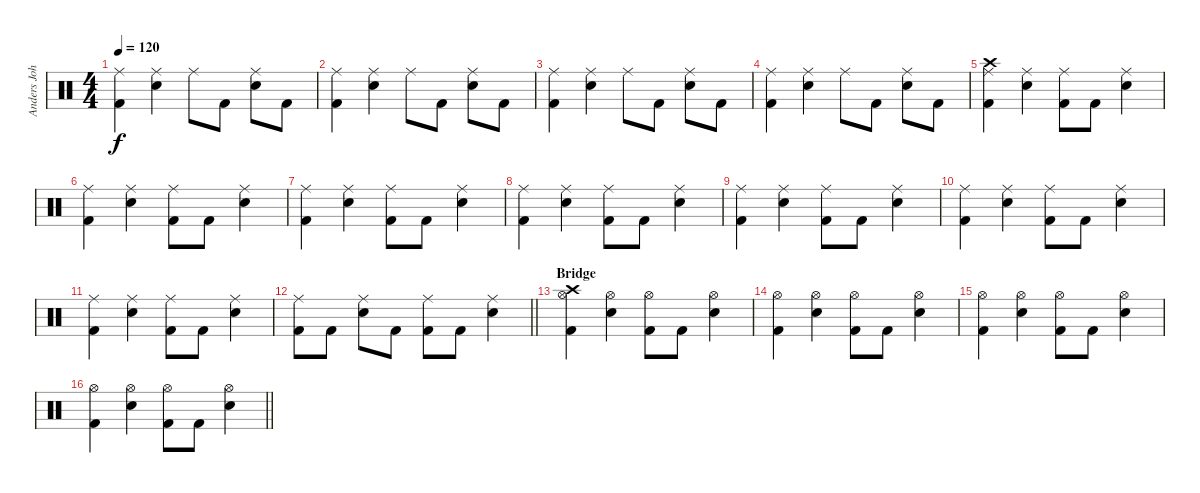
\track ("Anders Johansson" "Anders Joh") {instrument percussion}
\staff {score}
\articulation defaults
\ts (4 4)
\tempo 120
\clef neutral
\ks c
("Ride (middle)" "Kick (hit) 2").4{dy f} ("Ride (middle)" "Snare (hit) 2").4 "Ride (middle)".8 "Kick (hit) 2".8 ("Ride (middle)" "Snare (hit) 2").8 "Kick (hit) 2".8 |
("Ride (middle)" "Kick (hit) 2").4 ("Ride (middle)" "Snare (hit) 2").4 "Ride (middle)".8 "Kick (hit) 2".8 ("Ride (middle)" "Snare (hit) 2").8 "Kick (hit) 2".8 |
("Ride (middle)" "Kick (hit) 2").4 ("Ride (middle)" "Snare (hit) 2").4 "Ride (middle)".8 "Kick (hit) 2".8 ("Ride (middle)" "Snare (hit) 2").8 "Kick (hit) 2".8 |
("Ride (middle)" "Kick (hit) 2").4 ("Ride (middle)" "Snare (hit) 2").4 "Ride (middle)".8 "Kick (hit) 2".8 ("Ride (middle)" "Snare (hit) 2").8 "Kick (hit) 2".8 |
("Crash high (hit)" "Ride (middle)" "Kick (hit) 2").4 ("Ride (middle)" "Snare (hit) 2").4 ("Ride (middle)" "Kick (hit) 2").8 "Kick (hit) 2".8 ("Ride (middle)" "Snare (hit) 2").4 |
("Ride (middle)" "Kick (hit) 2").4 ("Ride (middle)" "Snare (hit) 2").4 ("Ride (middle)" "Kick (hit) 2").8 "Kick (hit) 2".8 ("Ride (middle)" "Snare (hit) 2").4 |
("Ride (middle)" "Kick (hit) 2").4 ("Ride (middle)" "Snare (hit) 2").4 ("Ride (middle)" "Kick (hit) 2").8 "Kick (hit) 2".8 ("Ride (middle)" "Snare (hit) 2").4 |
("Ride (middle)" "Kick (hit) 2").4 ("Ride (middle)" "Snare (hit) 2").4 ("Ride (middle)" "Kick (hit) 2").8 "Kick (hit) 2".8 ("Ride (middle)" "Snare (hit) 2").4 |
("Ride (middle)" "Kick (hit) 2").4 ("Ride (middle)" "Snare (hit) 2").4 ("Ride (middle)" "Kick (hit) 2").8 "Kick (hit) 2".8 ("Ride (middle)" "Snare (hit) 2").4 |
("Ride (middle)" "Kick (hit) 2").4 ("Ride (middle)" "Snare (hit) 2").4 ("Ride (middle)" "Kick (hit) 2").8 "Kick (hit) 2".8 ("Ride (middle)" "Snare (hit) 2").4 |
("Ride (middle)" "Kick (hit) 2").4 ("Ride (middle)" "Snare (hit) 2").4 ("Ride (middle)" "Kick (hit) 2").8 "Kick (hit) 2".8 ("Ride (middle)" "Snare (hit) 2").4 |
\barLineRight lightlight
("Ride (middle)" "Kick (hit) 2").8 "Kick (hit) 2".8 ("Ride (middle)" "Snare (hit) 2").8 "Kick (hit) 2".8 ("Ride (middle)" "Kick (hit) 2").8 "Kick (hit) 2".8 ("Ride (middle)" "Snare (hit) 2").4 |
\section ("" "Bridge")
("Crash high (hit)" "Hi-Hat (open)" "Kick (hit) 2").4 ("Hi-Hat (open)" "Snare (hit) 2").4 ("Hi-Hat (open)" "Kick (hit) 2").8 "Kick (hit) 2".8 ("Hi-Hat (open)" "Snare (hit) 2").4 |
("Hi-Hat (open)" "Kick (hit) 2").4 ("Hi-Hat (open)" "Snare (hit) 2").4 ("Hi-Hat (open)" "Kick (hit) 2").8 "Kick (hit) 2".8 ("Hi-Hat (open)" "Snare (hit) 2").4 |
("Hi-Hat (open)" "Kick (hit) 2").4 ("Hi-Hat (open)" "Snare (hit) 2").4 ("Hi-Hat (open)" "Kick (hit) 2").8 "Kick (hit) 2".8 ("Hi-Hat (open)" "Snare (hit) 2").4 |
\barLineRight lightlight
("Hi-Hat (open)" "Kick (hit) 2").4 ("Hi-Hat (open)" "Snare (hit) 2").4 ("Hi-Hat (open)" "Kick (hit) 2").8 "Kick (hit) 2".8 ("Hi-Hat (open)" "Snare (hit) 2").4
